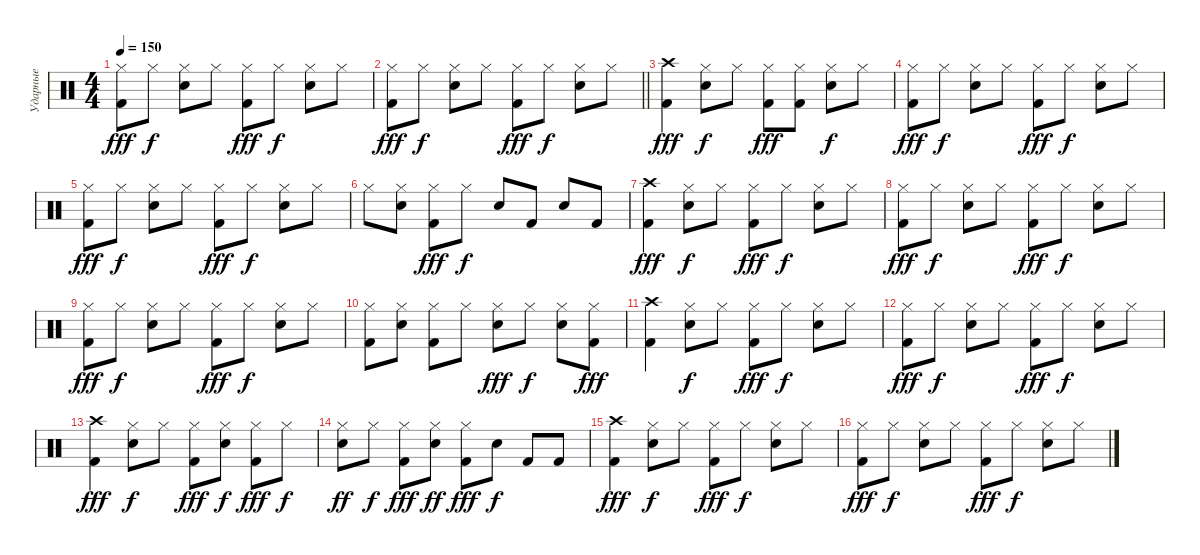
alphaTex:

\track ("Ударные" "Ударные") {instrument percussion}
\staff
\articulation defaults
\ts (4 4)
\tempo 150
\clef neutral
\ks c
("Kick (hit) 2" "Hi-Hat (closed)").8{dy fff} "Hi-Hat (closed)".8{dy f} ("Snare (hit) 2" "Hi-Hat (closed)").8 "Hi-Hat (closed)".8 ("Kick (hit) 2" "Hi-Hat (closed)").8{dy fff} "Hi-Hat (closed)".8{dy f} ("Snare (hit) 2" "Hi-Hat (closed)").8 "Hi-Hat (closed)".8 |
\barLineRight lightlight
("Kick (hit) 2" "Hi-Hat (closed)").8{dy fff} "Hi-Hat (closed)".8{dy f} ("Snare (hit) 2" "Hi-Hat (closed)").8 "Hi-Hat (closed)".8 ("Kick (hit) 2" "Hi-Hat (closed)").8{dy fff} "Hi-Hat (closed)".8{dy f} ("Snare (hit) 2" "Hi-Hat (closed)").8 "Hi-Hat (closed)".8 |
("Kick (hit) 2" "Crash high (hit)").4{dy fff} ("Snare (hit) 2" "Hi-Hat (closed)").8{dy f} "Hi-Hat (closed)".8 ("Kick (hit) 2" "Hi-Hat (closed)").8{dy fff} ("Kick (hit) 2" "Hi-Hat (closed)").8 ("Snare (hit) 2" "Hi-Hat (closed)").8{dy f} "Hi-Hat (closed)".8 |
("Kick (hit) 2" "Hi-Hat (closed)").8{dy fff} "Hi-Hat (closed)".8{dy f} ("Snare (hit) 2" "Hi-Hat (closed)").8 "Hi-Hat (closed)".8 ("Kick (hit) 2" "Hi-Hat (closed)").8{dy fff} "Hi-Hat (closed)".8{dy f} ("Snare (hit) 2" "Hi-Hat (closed)").8 "Hi-Hat (closed)".8 |
("Kick (hit) 2" "Hi-Hat (closed)").8{dy fff} "Hi-Hat (closed)".8{dy f} ("Snare (hit) 2" "Hi-Hat (closed)").8 "Hi-Hat (closed)".8 ("Kick (hit) 2" "Hi-Hat (closed)").8{dy fff} "Hi-Hat (closed)".8{dy f} ("Snare (hit) 2" "Hi-Hat (closed)").8 "Hi-Hat (closed)".8 |
"Hi-Hat (closed)".8 ("Snare (hit) 2" "Hi-Hat (closed)").8 ("Kick (hit) 2" "Hi-Hat (closed)").8{dy fff} "Hi-Hat (closed)".8{dy f} "Snare (hit) 2".8 "Kick (hit) 2".8 "Snare (hit) 2".8 "Kick (hit) 2".8 |
("Kick (hit) 2" "Crash high (hit)").4{dy fff} ("Snare (hit) 2" "Hi-Hat (closed)").8{dy f} "Hi-Hat (closed)".8 ("Kick (hit) 2" "Hi-Hat (closed)").8{dy fff} "Hi-Hat (closed)".8{dy f} ("Snare (hit) 2" "Hi-Hat (closed)").8 "Hi-Hat (closed)".8 |
("Kick (hit) 2" "Hi-Hat (closed)").8{dy fff} "Hi-Hat (closed)".8{dy f} ("Snare (hit) 2" "Hi-Hat (closed)").8 "Hi-Hat (closed)".8 ("Kick (hit) 2" "Hi-Hat (closed)").8{dy fff} "Hi-Hat (closed)".8{dy f} ("Snare (hit) 2" "Hi-Hat (closed)").8 "Hi-Hat (closed)".8 |
("Kick (hit) 2" "Hi-Hat (closed)").8{dy fff} "Hi-Hat (closed)".8{dy f} ("Snare (hit) 2" "Hi-Hat (closed)").8 "Hi-Hat (closed)".8 ("Kick (hit) 2" "Hi-Hat (closed)").8{dy fff} "Hi-Hat (closed)".8{dy f} ("Snare (hit) 2" "Hi-Hat (closed)").8 "Hi-Hat (closed)".8 |
("Kick (hit) 2" "Hi-Hat (closed)").8 ("Snare (hit) 2" "Hi-Hat (closed)").8 ("Kick (hit) 2" "Hi-Hat (closed)").8 "Hi-Hat (closed)".8 ("Snare (hit) 2" "Hi-Hat (closed)").8{dy fff} "Hi-Hat (closed)".8{dy f} ("Snare (hit) 2" "Hi-Hat (closed)").8 ("Kick (hit) 2" "Hi-Hat (closed)").8{dy fff} |
("Kick (hit) 2" "Crash high (hit)").4 ("Snare (hit) 2" "Hi-Hat (closed)").8{dy f} "Hi-Hat (closed)".8 ("Kick (hit) 2" "Hi-Hat (closed)").8{dy fff} "Hi-Hat (closed)".8{dy f} ("Snare (hit) 2" "Hi-Hat (closed)").8 "Hi-Hat (closed)".8 |
("Kick (hit) 2" "Hi-Hat (closed)").8{dy fff} "Hi-Hat (closed)".8{dy f} ("Snare (hit) 2" "Hi-Hat (closed)").8 "Hi-Hat (closed)".8 ("Kick (hit) 2" "Hi-Hat (closed)").8{dy fff} "Hi-Hat (closed)".8{dy f} ("Snare (hit) 2" "Hi-Hat (closed)").8 "Hi-Hat (closed)".8 |
("Kick (hit) 2" "Crash high (hit)").4{dy fff} ("Snare (hit) 2" "Hi-Hat (closed)").8{dy f} "Hi-Hat (closed)".8 ("Kick (hit) 2" "Hi-Hat (closed)").8{dy fff} ("Snare (hit) 2" "Hi-Hat (closed)").8{dy f} ("Kick (hit) 2" "Hi-Hat (closed)").8{dy fff} "Hi-Hat (closed)".8{dy f} |
("Snare (hit) 2" "Hi-Hat (closed)").8{dy ff} "Hi-Hat (closed)".8{dy f} ("Kick (hit) 2" "Hi-Hat (closed)").8{dy fff} ("Snare (hit) 2" "Hi-Hat (closed)").8{dy ff} ("Kick (hit) 2" "Hi-Hat (closed)").8{dy fff} "Snare (hit) 2".8{dy f} "Kick (hit) 2".8 "Kick (hit) 2".8 |
("Kick (hit) 2" "Crash high (hit)").4{dy fff} ("Snare (hit) 2" "Hi-Hat (closed)").8{dy f} "Hi-Hat (closed)".8 ("Kick (hit) 2" "Hi-Hat (closed)").8{dy fff} "Hi-Hat (closed)".8{dy f} ("Snare (hit) 2" "Hi-Hat (closed)").8 "Hi-Hat (closed)".8 |
("Kick (hit) 2" "Hi-Hat (closed)").8{dy fff} "Hi-Hat (closed)".8{dy f} ("Snare (hit) 2" "Hi-Hat (closed)").8 "Hi-Hat (closed)".8 ("Kick (hit) 2" "Hi-Hat (closed)").8{dy fff} "Hi-Hat (closed)".8{dy f} ("Snare (hit) 2" "Hi-Hat (closed)").8 "Hi-Hat (closed)".8
